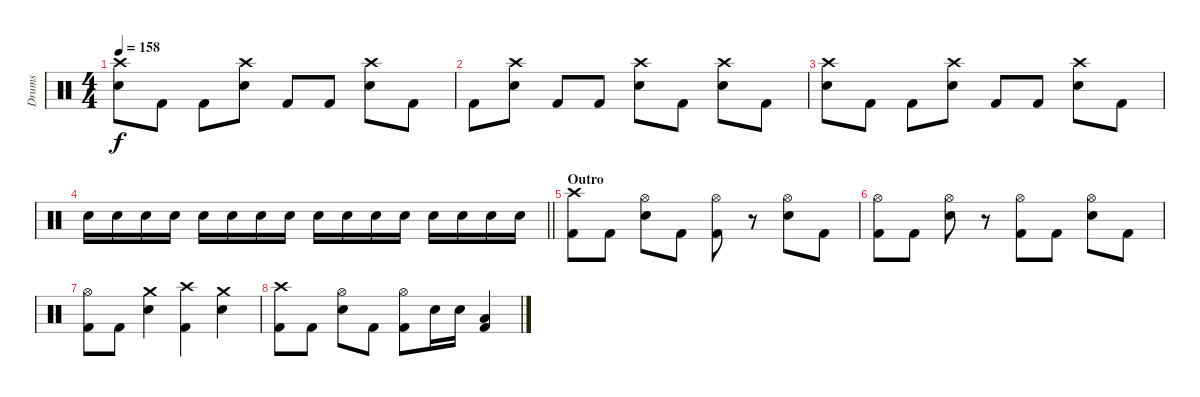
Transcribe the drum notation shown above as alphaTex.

\track ("Drums" "Drums") {instrument percussion}
\staff {score}
\articulation defaults
\ts (4 4)
\tempo 158
\clef neutral
\ks c
("Crash high (hit)" "Electric Snare (hit)").8{dy f} "Kick (hit) 2".8 "Kick (hit) 2".8 ("Crash high (hit)" "Electric Snare (hit)").8 "Kick (hit) 2".8 "Kick (hit) 2".8 ("Crash high (hit)" "Electric Snare (hit)").8 "Kick (hit) 2".8 |
"Kick (hit) 2".8 ("Crash high (hit)" "Electric Snare (hit)").8 "Kick (hit) 2".8 "Kick (hit) 2".8 ("Crash high (hit)" "Electric Snare (hit)").8 "Kick (hit) 2".8 ("Crash high (hit)" "Electric Snare (hit)").8 "Kick (hit) 2".8 |
("Crash high (hit)" "Electric Snare (hit)").8 "Kick (hit) 2".8 "Kick (hit) 2".8 ("Crash high (hit)" "Electric Snare (hit)").8 "Kick (hit) 2".8 "Kick (hit) 2".8 ("Crash high (hit)" "Electric Snare (hit)").8 "Kick (hit) 2".8 |
\barLineRight lightlight "Electric Snare (hit)".16 "Electric Snare (hit)".16 "Electric Snare (hit)".16 "Electric Snare (hit)".16 "Electric Snare (hit)".16 "Electric Snare (hit)".16 "Electric Snare (hit)".16 "Electric Snare (hit)".16 "Electric Snare (hit)".16 "Electric Snare (hit)".16 "Electric Snare (hit)".16 "Electric Snare (hit)".16 "Electric Snare (hit)".16 "Electric Snare (hit)".16 "Electric Snare (hit)".16 "Electric Snare (hit)".16
|
\section ("" "Outro")
("Crash high (hit)" "Kick (hit) 2").8 "Kick (hit) 2".8 ("Hi-Hat (open)" "Electric Snare (hit)").8 "Kick (hit) 2".8 ("Hi-Hat (open)" "Kick (hit) 2").8 r.8 ("Hi-Hat (open)" "Electric Snare (hit)").8 "Kick (hit) 2".8 |
("Hi-Hat (open)" "Kick (hit) 2").8 "Kick (hit) 2".8 ("Hi-Hat (open)" "Electric Snare (hit)").8 r.8 ("Hi-Hat (open)" "Kick (hit) 2").8 "Kick (hit) 2".8 ("Hi-Hat (open)" "Electric Snare (hit)").8 "Kick (hit) 2".8 |
("Hi-Hat (open)" "Kick (hit) 2").8 "Kick (hit) 2".8 ("Crash medium (hit)" "Electric Snare (hit)").4 ("Crash high (hit)" "Kick (hit) 2").4 ("Crash medium (hit)" "Electric Snare (hit)").4 |
("Crash high (hit)" "Kick (hit) 2").8 "Kick (hit) 2".8 ("Hi-Hat (open)" "Electric Snare (hit)").8 "Kick (hit) 2".8 ("Hi-Hat (open)" "Kick (hit) 2").8 "Electric Snare (hit)".16 "Electric Snare (hit)".16 ("Low Floor Tom (hit)" "Kick (hit) 2").4
